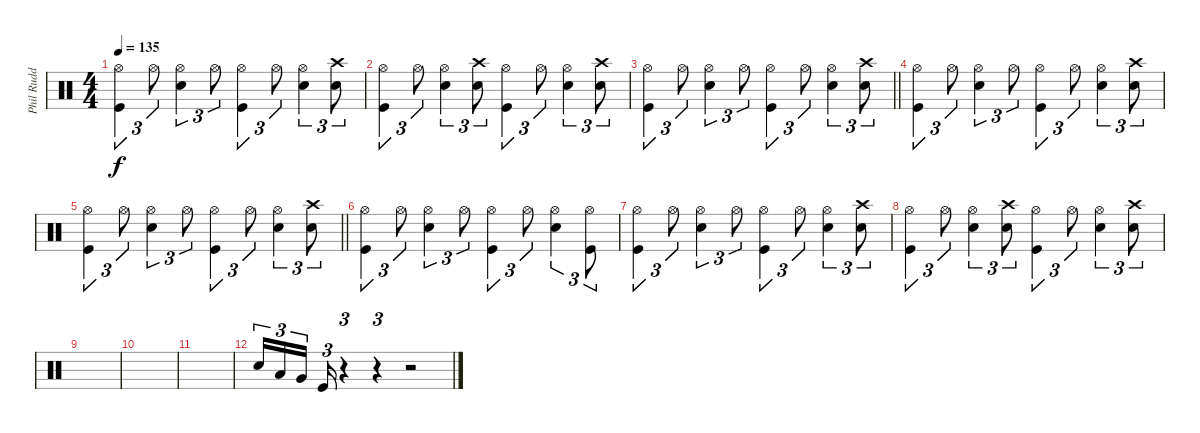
\track ("Phil Rudd" "Phil Rudd") {instrument percussion}
\staff {score}
\articulation defaults
\ts (4 4)
\tempo 135
\clef neutral
\ks c
("Hi-Hat (open)" "Kick (hit)").4{tu (3 2) dy f} "Hi-Hat (open)".8{tu (3 2)} ("Hi-Hat (open)" "Snare (hit) 2").4{tu (3 2)} "Hi-Hat (open)".8{tu (3 2)} ("Hi-Hat (open)" "Kick (hit)").4{tu (3 2)} "Hi-Hat (open)".8{tu (3 2)} ("Hi-Hat (open)" "Snare (hit) 2").4{tu (3 2)} ("Crash high (hit)" "Snare (hit) 2").8{tu (3 2)} |
("Hi-Hat (open)" "Kick (hit)").4{tu (3 2)} "Hi-Hat (open)".8{tu (3 2)} ("Hi-Hat (open)" "Snare (hit) 2").4{tu (3 2)} ("Crash high (hit)" "Snare (hit) 2").8{tu (3 2)} ("Hi-Hat (open)" "Kick (hit)").4{tu (3 2)} "Hi-Hat (open)".8{tu (3 2)} ("Hi-Hat (open)" "Snare (hit) 2").4{tu (3 2)} ("Crash high (hit)" "Snare (hit) 2").8{tu (3 2)} |
\barLineRight lightlight
("Hi-Hat (open)" "Kick (hit)").4{tu (3 2)} "Hi-Hat (open)".8{tu (3 2)} ("Hi-Hat (open)" "Snare (hit) 2").4{tu (3 2)} "Hi-Hat (open)".8{tu (3 2)} ("Hi-Hat (open)" "Kick (hit)").4{tu (3 2)} "Hi-Hat (open)".8{tu (3 2)} ("Hi-Hat (open)" "Snare (hit) 2").4{tu (3 2)} ("Crash high (hit)" "Snare (hit) 2").8{tu (3 2)} |
("Hi-Hat (open)" "Kick (hit)").4{tu (3 2)} "Hi-Hat (open)".8{tu (3 2)} ("Hi-Hat (open)" "Snare (hit) 2").4{tu (3 2)} "Hi-Hat (open)".8{tu (3 2)} ("Hi-Hat (open)" "Kick (hit)").4{tu (3 2)} "Hi-Hat (open)".8{tu (3 2)} ("Hi-Hat (open)" "Snare (hit) 2").4{tu (3 2)} ("Crash high (hit)" "Snare (hit) 2").8{tu (3 2)} |
\barLineRight lightlight
("Hi-Hat (open)" "Kick (hit)").4{tu (3 2)} "Hi-Hat (open)".8{tu (3 2)} ("Hi-Hat (open)" "Snare (hit) 2").4{tu (3 2)} "Hi-Hat (open)".8{tu (3 2)} ("Hi-Hat (open)" "Kick (hit)").4{tu (3 2)} "Hi-Hat (open)".8{tu (3 2)} ("Hi-Hat (open)" "Snare (hit) 2").4{tu (3 2)} ("Crash high (hit)" "Snare (hit) 2").8{tu (3 2)} |
("Hi-Hat (open)" "Kick (hit)").4{tu (3 2)} "Hi-Hat (open)".8{tu (3 2)} ("Hi-Hat (open)" "Snare (hit) 2").4{tu (3 2)} "Hi-Hat (open)".8{tu (3 2)} ("Hi-Hat (open)" "Kick (hit)").4{tu (3 2)} "Hi-Hat (open)".8{tu (3 2)} ("Hi-Hat (open)" "Snare (hit) 2").4{tu (3 2)} ("Hi-Hat (open)" "Kick (hit)").8{tu (3 2)} |
("Hi-Hat (open)" "Kick (hit)").4{tu (3 2)} "Hi-Hat (open)".8{tu (3 2)} ("Hi-Hat (open)" "Snare (hit) 2").4{tu (3 2)} "Hi-Hat (open)".8{tu (3 2)} ("Hi-Hat (open)" "Kick (hit)").4{tu (3 2)} "Hi-Hat (open)".8{tu (3 2)} ("Hi-Hat (open)" "Snare (hit) 2").4{tu (3 2)} ("Crash high (hit)" "Snare (hit) 2").8{tu (3 2)} |
("Hi-Hat (open)" "Kick (hit)").4{tu (3 2)} "Hi-Hat (open)".8{tu (3 2)} ("Hi-Hat (open)" "Snare (hit) 2").4{tu (3 2)} ("Crash high (hit)" "Snare (hit) 2").8{tu (3 2)} ("Hi-Hat (open)" "Kick (hit)").4{tu (3 2)} "Hi-Hat (open)".8{tu (3 2)} ("Hi-Hat (open)" "Snare (hit) 2").4{tu (3 2)} ("Crash high (hit)" "Snare (hit) 2").8{tu (3 2)} |
|
|
|
"Snare (hit) 2".16{tu (3 2)} "Low Tom (hit)".16{tu (3 2)} "Very Low Tom (hit)".16{tu (3 2) beam splitsecondary} "Kick (hit)".16{tu (3 2)} r.4{tu (3 2)} r.4{tu (3 2)} r.2
